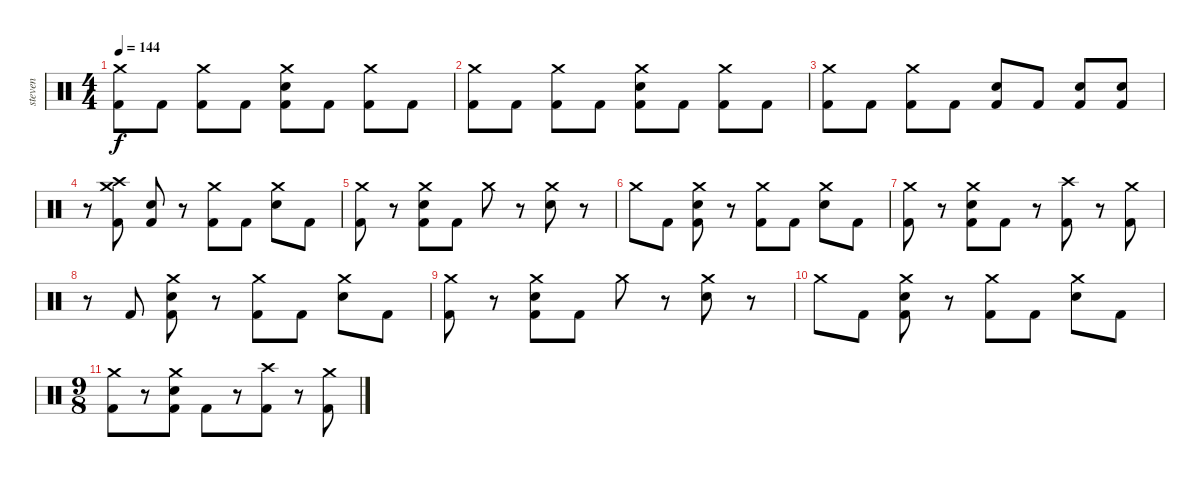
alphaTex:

\track ("steven" "steven") {instrument percussion}
\staff {score}
\articulation defaults
\ts (4 4)
\tempo 144
\clef neutral
\ks c
("Crash medium (hit)" "Kick (hit) 2").8{dy f} "Kick (hit) 2".8 ("Crash medium (hit)" "Kick (hit) 2").8 "Kick (hit) 2".8 ("Crash medium (hit)" "Electric Snare (hit)" "Kick (hit) 2").8 "Kick (hit) 2".8 ("Crash medium (hit)" "Kick (hit) 2").8 "Kick (hit) 2".8 |
("Crash medium (hit)" "Kick (hit) 2").8 "Kick (hit) 2".8 ("Crash medium (hit)" "Kick (hit) 2").8 "Kick (hit) 2".8 ("Crash medium (hit)" "Electric Snare (hit)" "Kick (hit) 2").8 "Kick (hit) 2".8 ("Crash medium (hit)" "Kick (hit) 2").8 "Kick (hit) 2".8 |
("Crash medium (hit)" "Kick (hit) 2").8 "Kick (hit) 2".8 ("Crash medium (hit)" "Kick (hit) 2").8 "Kick (hit) 2".8 ("Electric Snare (hit)" "Kick (hit) 2").8 "Kick (hit) 2".8 ("Electric Snare (hit)" "Kick (hit) 2").8 ("Electric Snare (hit)" "Kick (hit) 2").8 |
r.8 ("Crash high (hit)" "Crash medium (hit)" "Kick (hit) 2").8 ("Electric Snare (hit)" "Kick (hit) 2").8 r.8 ("Crash medium (hit)" "Kick (hit) 2").8 "Kick (hit) 2".8 ("Crash medium (hit)" "Electric Snare (hit)").8 "Kick (hit) 2".8 |
("Crash medium (hit)" "Kick (hit) 2").8 r.8 ("Crash medium (hit)" "Electric Snare (hit)" "Kick (hit) 2").8 "Kick (hit) 2".8 "Crash medium (hit)".8 r.8 ("Crash medium (hit)" "Electric Snare (hit)").8 r.8 |
"Crash medium (hit)".8 "Kick (hit) 2".8 ("Crash medium (hit)" "Electric Snare (hit)" "Kick (hit) 2").8 r.8 ("Crash medium (hit)" "Kick (hit) 2").8 "Kick (hit) 2".8 ("Crash medium (hit)" "Electric Snare (hit)").8 "Kick (hit) 2".8 |
("Crash medium (hit)" "Kick (hit) 2").8 r.8 ("Crash medium (hit)" "Electric Snare (hit)" "Kick (hit) 2").8 "Kick (hit) 2".8 r.8 ("Crash high (hit)" "Kick (hit) 2").8 r.8 ("Crash medium (hit)" "Kick (hit) 2").8 |
r.8 "Kick (hit) 2".8 ("Crash medium (hit)" "Electric Snare (hit)" "Kick (hit) 2").8 r.8 ("Crash medium (hit)" "Kick (hit) 2").8 "Kick (hit) 2".8 ("Crash medium (hit)" "Electric Snare (hit)").8 "Kick (hit) 2".8 |
("Crash medium (hit)" "Kick (hit) 2").8 r.8 ("Crash medium (hit)" "Electric Snare (hit)" "Kick (hit) 2").8 "Kick (hit) 2".8 "Crash medium (hit)".8 r.8 ("Crash medium (hit)" "Electric Snare (hit)").8 r.8 |
"Crash medium (hit)".8 "Kick (hit) 2".8 ("Crash medium (hit)" "Electric Snare (hit)" "Kick (hit) 2").8 r.8 ("Crash medium (hit)" "Kick (hit) 2").8 "Kick (hit) 2".8 ("Crash medium (hit)" "Electric Snare (hit)").8 "Kick (hit) 2".8 |
\ts (9 8)
("Crash medium (hit)" "Kick (hit) 2").8 r.8 ("Crash medium (hit)" "Electric Snare (hit)" "Kick (hit) 2").8 "Kick (hit) 2".8 r.8 ("Crash high (hit)" "Kick (hit) 2").8 r.8 ("Crash medium (hit)" "Kick (hit) 2").8
